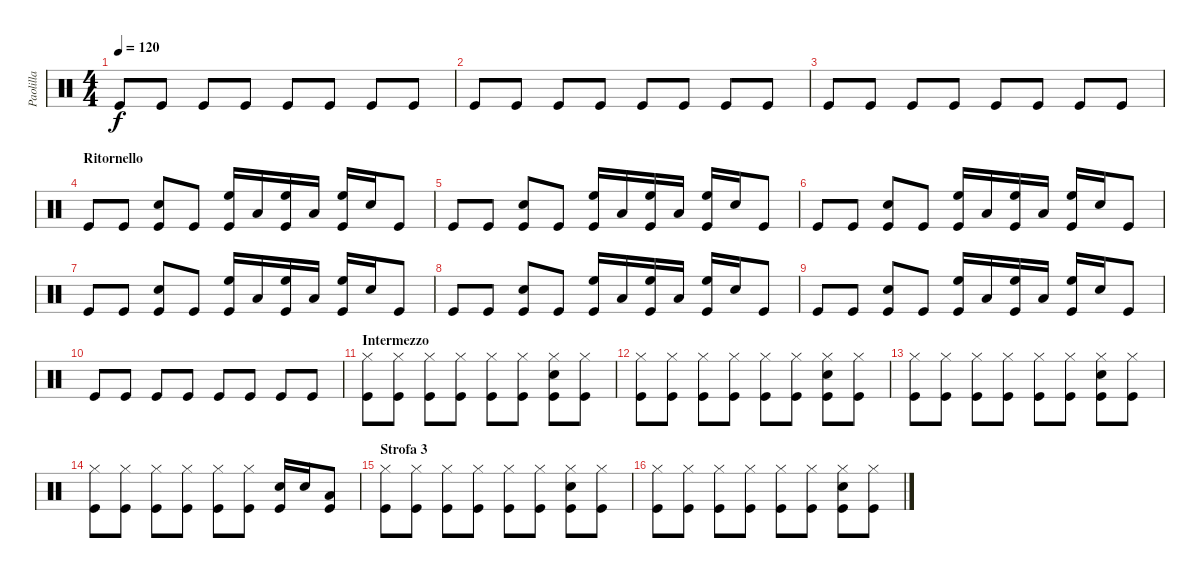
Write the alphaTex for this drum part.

\track ("Paolilla" "Paolilla") {instrument percussion}
\staff {score}
\articulation defaults
\ts (4 4)
\tempo 120
\clef neutral
\ks c "Kick (hit)".8{dy f} "Kick (hit)".8 "Kick (hit)".8 "Kick (hit)".8 "Kick (hit)".8 "Kick (hit)".8 "Kick (hit)".8 "Kick (hit)".8
|
"Kick (hit)".8 "Kick (hit)".8 "Kick (hit)".8 "Kick (hit)".8 "Kick (hit)".8 "Kick (hit)".8 "Kick (hit)".8 "Kick (hit)".8 |
"Kick (hit)".8 "Kick (hit)".8 "Kick (hit)".8 "Kick (hit)".8 "Kick (hit)".8 "Kick (hit)".8 "Kick (hit)".8 "Kick (hit)".8 |
\section ("" "Ritornello")
"Kick (hit)".8 "Kick (hit)".8 ("Kick (hit)" "Snare (hit) 2").8 "Kick (hit)".8 ("High Floor Tom (hit)" "Kick (hit)").16 "Low Tom (hit)".16 ("High Floor Tom (hit)" "Kick (hit)").16 "Low Tom (hit)".16 ("High Floor Tom (hit)" "Kick (hit)").16 "Snare (hit) 2".16 "Kick (hit)".8 |
"Kick (hit)".8 "Kick (hit)".8 ("Kick (hit)" "Snare (hit) 2").8 "Kick (hit)".8 ("High Floor Tom (hit)" "Kick (hit)").16 "Low Tom (hit)".16 ("High Floor Tom (hit)" "Kick (hit)").16 "Low Tom (hit)".16 ("High Floor Tom (hit)" "Kick (hit)").16 "Snare (hit) 2".16 "Kick (hit)".8 |
"Kick (hit)".8 "Kick (hit)".8 ("Kick (hit)" "Snare (hit) 2").8 "Kick (hit)".8 ("High Floor Tom (hit)" "Kick (hit)").16 "Low Tom (hit)".16 ("High Floor Tom (hit)" "Kick (hit)").16 "Low Tom (hit)".16 ("High Floor Tom (hit)" "Kick (hit)").16 "Snare (hit) 2".16 "Kick (hit)".8 |
"Kick (hit)".8 "Kick (hit)".8 ("Kick (hit)" "Snare (hit) 2").8 "Kick (hit)".8 ("High Floor Tom (hit)" "Kick (hit)").16 "Low Tom (hit)".16 ("High Floor Tom (hit)" "Kick (hit)").16 "Low Tom (hit)".16 ("High Floor Tom (hit)" "Kick (hit)").16 "Snare (hit) 2".16 "Kick (hit)".8 |
"Kick (hit)".8 "Kick (hit)".8 ("Kick (hit)" "Snare (hit) 2").8 "Kick (hit)".8 ("High Floor Tom (hit)" "Kick (hit)").16 "Low Tom (hit)".16 ("High Floor Tom (hit)" "Kick (hit)").16 "Low Tom (hit)".16 ("High Floor Tom (hit)" "Kick (hit)").16 "Snare (hit) 2".16 "Kick (hit)".8 |
"Kick (hit)".8 "Kick (hit)".8 ("Kick (hit)" "Snare (hit) 2").8 "Kick (hit)".8 ("High Floor Tom (hit)" "Kick (hit)").16 "Low Tom (hit)".16 ("High Floor Tom (hit)" "Kick (hit)").16 "Low Tom (hit)".16 ("High Floor Tom (hit)" "Kick (hit)").16 "Snare (hit) 2".16 "Kick (hit)".8 |
"Kick (hit)".8 "Kick (hit)".8 "Kick (hit)".8 "Kick (hit)".8 "Kick (hit)".8 "Kick (hit)".8 "Kick (hit)".8 "Kick (hit)".8 |
\section ("" "Intermezzo")
("Hi-Hat (closed)" "Kick (hit)").8 ("Hi-Hat (closed)" "Kick (hit)").8 ("Hi-Hat (closed)" "Kick (hit)").8 ("Hi-Hat (closed)" "Kick (hit)").8 ("Hi-Hat (closed)" "Kick (hit)").8 ("Hi-Hat (closed)" "Kick (hit)").8 ("Hi-Hat (closed)" "Snare (hit) 2" "Kick (hit)").8 ("Hi-Hat (closed)" "Kick (hit)").8 |
("Hi-Hat (closed)" "Kick (hit)").8 ("Hi-Hat (closed)" "Kick (hit)").8 ("Hi-Hat (closed)" "Kick (hit)").8 ("Hi-Hat (closed)" "Kick (hit)").8 ("Hi-Hat (closed)" "Kick (hit)").8 ("Hi-Hat (closed)" "Kick (hit)").8 ("Hi-Hat (closed)" "Snare (hit) 2" "Kick (hit)").8 ("Hi-Hat (closed)" "Kick (hit)").8 |
("Hi-Hat (closed)" "Kick (hit)").8 ("Hi-Hat (closed)" "Kick (hit)").8 ("Hi-Hat (closed)" "Kick (hit)").8 ("Hi-Hat (closed)" "Kick (hit)").8 ("Hi-Hat (closed)" "Kick (hit)").8 ("Hi-Hat (closed)" "Kick (hit)").8 ("Hi-Hat (closed)" "Snare (hit) 2" "Kick (hit)").8 ("Hi-Hat (closed)" "Kick (hit)").8 |
("Hi-Hat (closed)" "Kick (hit)").8 ("Hi-Hat (closed)" "Kick (hit)").8 ("Hi-Hat (closed)" "Kick (hit)").8 ("Hi-Hat (closed)" "Kick (hit)").8 ("Hi-Hat (closed)" "Kick (hit)").8 ("Hi-Hat (closed)" "Kick (hit)").8 ("Snare (hit) 2" "Kick (hit)").16 "Snare (hit) 2".16 ("Low Tom (hit)" "Kick (hit)").8 |
\section ("" "Strofa 3")
("Hi-Hat (closed)" "Kick (hit)").8 ("Hi-Hat (closed)" "Kick (hit)").8 ("Hi-Hat (closed)" "Kick (hit)").8 ("Hi-Hat (closed)" "Kick (hit)").8 ("Hi-Hat (closed)" "Kick (hit)").8 ("Hi-Hat (closed)" "Kick (hit)").8 ("Hi-Hat (closed)" "Snare (hit) 2" "Kick (hit)").8 ("Hi-Hat (closed)" "Kick (hit)").8 |
("Hi-Hat (closed)" "Kick (hit)").8 ("Hi-Hat (closed)" "Kick (hit)").8 ("Hi-Hat (closed)" "Kick (hit)").8 ("Hi-Hat (closed)" "Kick (hit)").8 ("Hi-Hat (closed)" "Kick (hit)").8 ("Hi-Hat (closed)" "Kick (hit)").8 ("Hi-Hat (closed)" "Snare (hit) 2" "Kick (hit)").8 ("Hi-Hat (closed)" "Kick (hit)").8
